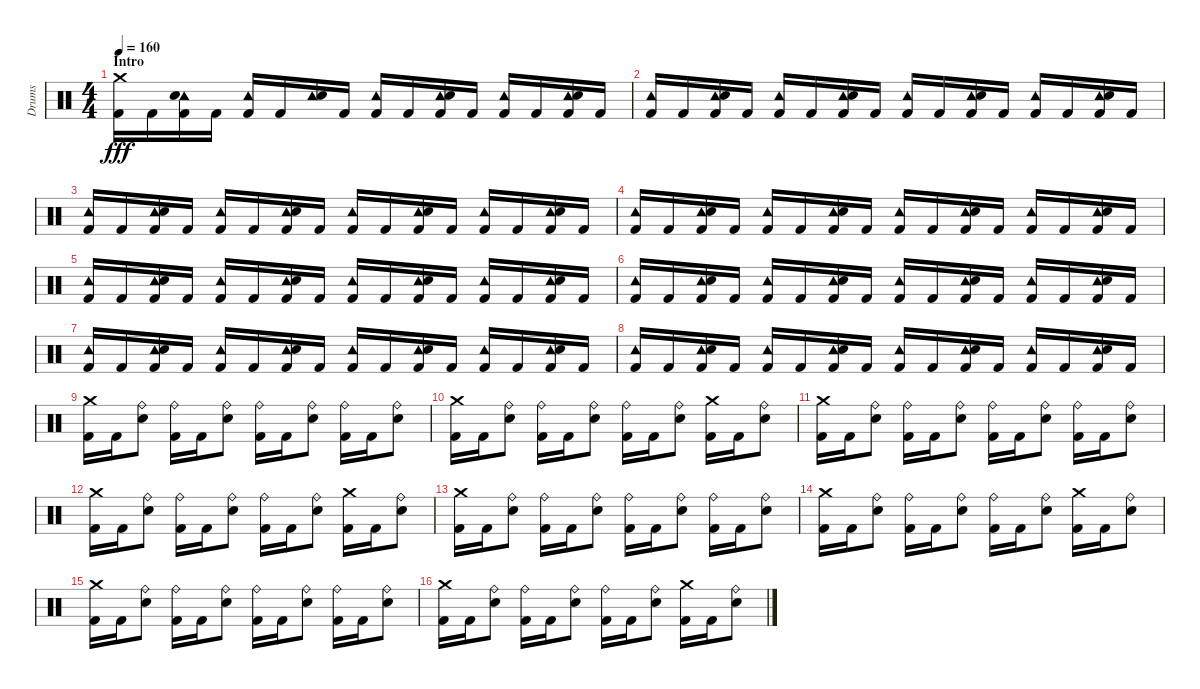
\track ("Drums" "Drums") {instrument percussion}
\staff {score}
\articulation defaults
\ts (4 4)
\section ("" "Intro")
\tempo 160
\clef neutral
\ks c
("Crash medium (hit)" "Kick (hit) 2").16{dy fff} "Kick (hit) 2".16 ("Kick (hit) 2" "Tambourine (hit)" "Electric Snare (hit)").16 "Kick (hit) 2".16 ("Kick (hit) 2" "Tambourine (hit)").16 "Kick (hit) 2".16 ("Tambourine (hit)" "Electric Snare (hit)").16 "Kick (hit) 2".16 ("Kick (hit) 2" "Tambourine (hit)").16 "Kick (hit) 2".16 ("Kick (hit) 2" "Tambourine (hit)" "Electric Snare (hit)").16 "Kick (hit) 2".16 ("Kick (hit) 2" "Tambourine (hit)").16 "Kick (hit) 2".16 ("Kick (hit) 2" "Tambourine (hit)" "Electric Snare (hit)").16 "Kick (hit) 2".16 |
("Kick (hit) 2" "Tambourine (hit)").16 "Kick (hit) 2".16 ("Kick (hit) 2" "Tambourine (hit)" "Electric Snare (hit)").16 "Kick (hit) 2".16 ("Kick (hit) 2" "Tambourine (hit)").16 "Kick (hit) 2".16 ("Kick (hit) 2" "Tambourine (hit)" "Electric Snare (hit)").16 "Kick (hit) 2".16 ("Kick (hit) 2" "Tambourine (hit)").16 "Kick (hit) 2".16 ("Kick (hit) 2" "Tambourine (hit)" "Electric Snare (hit)").16 "Kick (hit) 2".16 ("Kick (hit) 2" "Tambourine (hit)").16 "Kick (hit) 2".16 ("Kick (hit) 2" "Tambourine (hit)" "Electric Snare (hit)").16 "Kick (hit) 2".16 |
("Kick (hit) 2" "Tambourine (hit)").16 "Kick (hit) 2".16 ("Kick (hit) 2" "Tambourine (hit)" "Electric Snare (hit)").16 "Kick (hit) 2".16 ("Kick (hit) 2" "Tambourine (hit)").16 "Kick (hit) 2".16 ("Kick (hit) 2" "Tambourine (hit)" "Electric Snare (hit)").16 "Kick (hit) 2".16 ("Kick (hit) 2" "Tambourine (hit)").16 "Kick (hit) 2".16 ("Kick (hit) 2" "Tambourine (hit)" "Electric Snare (hit)").16 "Kick (hit) 2".16 ("Kick (hit) 2" "Tambourine (hit)").16 "Kick (hit) 2".16 ("Kick (hit) 2" "Tambourine (hit)" "Electric Snare (hit)").16 "Kick (hit) 2".16 |
("Kick (hit) 2" "Tambourine (hit)").16 "Kick (hit) 2".16 ("Kick (hit) 2" "Tambourine (hit)" "Electric Snare (hit)").16 "Kick (hit) 2".16 ("Kick (hit) 2" "Tambourine (hit)").16 "Kick (hit) 2".16 ("Kick (hit) 2" "Tambourine (hit)" "Electric Snare (hit)").16 "Kick (hit) 2".16 ("Kick (hit) 2" "Tambourine (hit)").16 "Kick (hit) 2".16 ("Kick (hit) 2" "Tambourine (hit)" "Electric Snare (hit)").16 "Kick (hit) 2".16 ("Kick (hit) 2" "Tambourine (hit)").16 "Kick (hit) 2".16 ("Kick (hit) 2" "Tambourine (hit)" "Electric Snare (hit)").16 "Kick (hit) 2".16 |
("Kick (hit) 2" "Tambourine (hit)").16 "Kick (hit) 2".16 ("Kick (hit) 2" "Tambourine (hit)" "Electric Snare (hit)").16 "Kick (hit) 2".16 ("Kick (hit) 2" "Tambourine (hit)").16 "Kick (hit) 2".16 ("Kick (hit) 2" "Tambourine (hit)" "Electric Snare (hit)").16 "Kick (hit) 2".16 ("Kick (hit) 2" "Tambourine (hit)").16 "Kick (hit) 2".16 ("Kick (hit) 2" "Tambourine (hit)" "Electric Snare (hit)").16 "Kick (hit) 2".16 ("Kick (hit) 2" "Tambourine (hit)").16 "Kick (hit) 2".16 ("Kick (hit) 2" "Tambourine (hit)" "Electric Snare (hit)").16 "Kick (hit) 2".16 |
("Kick (hit) 2" "Tambourine (hit)").16 "Kick (hit) 2".16 ("Kick (hit) 2" "Tambourine (hit)" "Electric Snare (hit)").16 "Kick (hit) 2".16 ("Kick (hit) 2" "Tambourine (hit)").16 "Kick (hit) 2".16 ("Kick (hit) 2" "Tambourine (hit)" "Electric Snare (hit)").16 "Kick (hit) 2".16 ("Kick (hit) 2" "Tambourine (hit)").16 "Kick (hit) 2".16 ("Kick (hit) 2" "Tambourine (hit)" "Electric Snare (hit)").16 "Kick (hit) 2".16 ("Kick (hit) 2" "Tambourine (hit)").16 "Kick (hit) 2".16 ("Kick (hit) 2" "Tambourine (hit)" "Electric Snare (hit)").16 "Kick (hit) 2".16 |
("Kick (hit) 2" "Tambourine (hit)").16 "Kick (hit) 2".16 ("Kick (hit) 2" "Tambourine (hit)" "Electric Snare (hit)").16 "Kick (hit) 2".16 ("Kick (hit) 2" "Tambourine (hit)").16 "Kick (hit) 2".16 ("Kick (hit) 2" "Tambourine (hit)" "Electric Snare (hit)").16 "Kick (hit) 2".16 ("Kick (hit) 2" "Tambourine (hit)").16 "Kick (hit) 2".16 ("Kick (hit) 2" "Tambourine (hit)" "Electric Snare (hit)").16 "Kick (hit) 2".16 ("Kick (hit) 2" "Tambourine (hit)").16 "Kick (hit) 2".16 ("Kick (hit) 2" "Tambourine (hit)" "Electric Snare (hit)").16 "Kick (hit) 2".16 |
("Kick (hit) 2" "Tambourine (hit)").16 "Kick (hit) 2".16 ("Kick (hit) 2" "Tambourine (hit)" "Electric Snare (hit)").16 "Kick (hit) 2".16 ("Kick (hit) 2" "Tambourine (hit)").16 "Kick (hit) 2".16 ("Kick (hit) 2" "Tambourine (hit)" "Electric Snare (hit)").16 "Kick (hit) 2".16 ("Kick (hit) 2" "Tambourine (hit)").16 "Kick (hit) 2".16 ("Kick (hit) 2" "Tambourine (hit)" "Electric Snare (hit)").16 "Kick (hit) 2".16 ("Kick (hit) 2" "Tambourine (hit)").16 "Kick (hit) 2".16 ("Kick (hit) 2" "Tambourine (hit)" "Electric Snare (hit)").16 "Kick (hit) 2".16 |
("Kick (hit) 2" "Crash medium (hit)").16 "Kick (hit) 2".16 ("Ride (bell)" "Electric Snare (hit)").8 ("Kick (hit) 2" "Ride (bell)").16 "Kick (hit) 2".16 ("Ride (bell)" "Electric Snare (hit)").8 ("Kick (hit) 2" "Ride (bell)").16 "Kick (hit) 2".16 ("Ride (bell)" "Electric Snare (hit)").8 ("Kick (hit) 2" "Ride (bell)").16 "Kick (hit) 2".16 ("Ride (bell)" "Electric Snare (hit)").8 |
("Kick (hit) 2" "Crash medium (hit)").16 "Kick (hit) 2".16 ("Ride (bell)" "Electric Snare (hit)").8 ("Kick (hit) 2" "Ride (bell)").16 "Kick (hit) 2".16 ("Ride (bell)" "Electric Snare (hit)").8 ("Kick (hit) 2" "Ride (bell)").16 "Kick (hit) 2".16 ("Ride (bell)" "Electric Snare (hit)").8 ("Crash medium (hit)" "Kick (hit) 2").16 "Kick (hit) 2".16 ("Ride (bell)" "Electric Snare (hit)").8 |
("Kick (hit) 2" "Crash medium (hit)").16 "Kick (hit) 2".16 ("Ride (bell)" "Electric Snare (hit)").8 ("Kick (hit) 2" "Ride (bell)").16 "Kick (hit) 2".16 ("Ride (bell)" "Electric Snare (hit)").8 ("Kick (hit) 2" "Ride (bell)").16 "Kick (hit) 2".16 ("Ride (bell)" "Electric Snare (hit)").8 ("Kick (hit) 2" "Ride (bell)").16 "Kick (hit) 2".16 ("Ride (bell)" "Electric Snare (hit)").8 |
("Kick (hit) 2" "Crash medium (hit)").16 "Kick (hit) 2".16 ("Ride (bell)" "Electric Snare (hit)").8 ("Kick (hit) 2" "Ride (bell)").16 "Kick (hit) 2".16 ("Ride (bell)" "Electric Snare (hit)").8 ("Kick (hit) 2" "Ride (bell)").16 "Kick (hit) 2".16 ("Ride (bell)" "Electric Snare (hit)").8 ("Crash medium (hit)" "Kick (hit) 2").16 "Kick (hit) 2".16 ("Ride (bell)" "Electric Snare (hit)").8 |
("Kick (hit) 2" "Crash medium (hit)").16 "Kick (hit) 2".16 ("Ride (bell)" "Electric Snare (hit)").8 ("Kick (hit) 2" "Ride (bell)").16 "Kick (hit) 2".16 ("Ride (bell)" "Electric Snare (hit)").8 ("Kick (hit) 2" "Ride (bell)").16 "Kick (hit) 2".16 ("Ride (bell)" "Electric Snare (hit)").8 ("Kick (hit) 2" "Ride (bell)").16 "Kick (hit) 2".16 ("Ride (bell)" "Electric Snare (hit)").8 |
("Kick (hit) 2" "Crash medium (hit)").16 "Kick (hit) 2".16 ("Ride (bell)" "Electric Snare (hit)").8 ("Kick (hit) 2" "Ride (bell)").16 "Kick (hit) 2".16 ("Ride (bell)" "Electric Snare (hit)").8 ("Kick (hit) 2" "Ride (bell)").16 "Kick (hit) 2".16 ("Ride (bell)" "Electric Snare (hit)").8 ("Crash medium (hit)" "Kick (hit) 2").16 "Kick (hit) 2".16 ("Ride (bell)" "Electric Snare (hit)").8 |
("Kick (hit) 2" "Crash medium (hit)").16 "Kick (hit) 2".16 ("Ride (bell)" "Electric Snare (hit)").8 ("Kick (hit) 2" "Ride (bell)").16 "Kick (hit) 2".16 ("Ride (bell)" "Electric Snare (hit)").8 ("Kick (hit) 2" "Ride (bell)").16 "Kick (hit) 2".16 ("Ride (bell)" "Electric Snare (hit)").8 ("Kick (hit) 2" "Ride (bell)").16 "Kick (hit) 2".16 ("Ride (bell)" "Electric Snare (hit)").8 |
("Kick (hit) 2" "Crash medium (hit)").16 "Kick (hit) 2".16 ("Ride (bell)" "Electric Snare (hit)").8 ("Kick (hit) 2" "Ride (bell)").16 "Kick (hit) 2".16 ("Ride (bell)" "Electric Snare (hit)").8 ("Kick (hit) 2" "Ride (bell)").16 "Kick (hit) 2".16 ("Ride (bell)" "Electric Snare (hit)").8 ("Crash medium (hit)" "Kick (hit) 2").16 "Kick (hit) 2".16 ("Ride (bell)" "Electric Snare (hit)").8
